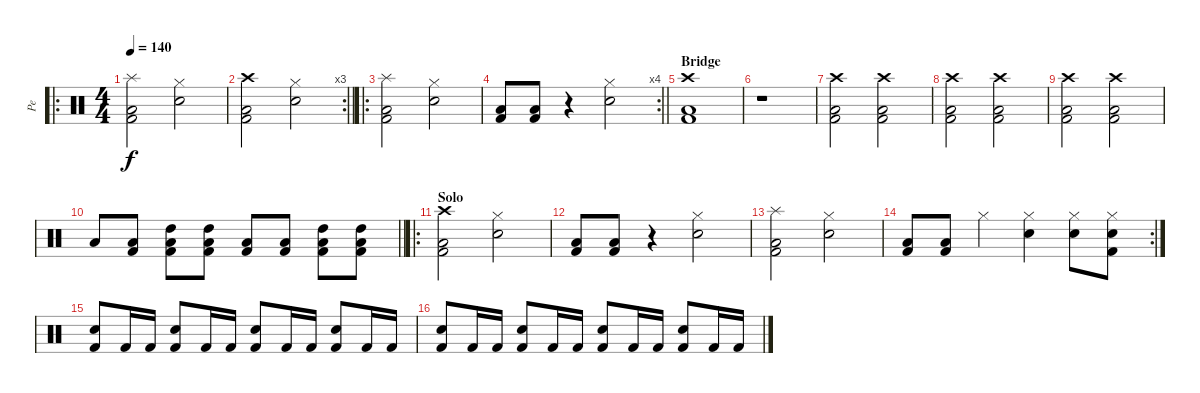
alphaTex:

\track ("Pe" "Pe") {instrument percussion}
\staff {score}
\articulation defaults
\ro
\ts (4 4)
\tempo 140
\clef neutral
\ks c
("Splash (hit)" "Low Floor Tom (hit)" "Kick (hit) 2").2{dy f} ("Snare (hit) 2" "Hi-Hat (closed)").2 |
\rc 3
\barLineRight lightlight
("Crash high (hit)" "Low Floor Tom (hit)" "Kick (hit) 2").2 ("Snare (hit) 2" "Hi-Hat (closed)").2 |
\ro
("Splash (hit)" "Low Floor Tom (hit)" "Kick (hit) 2").2 ("Snare (hit) 2" "Hi-Hat (closed)").2 |
\rc 4
\barLineRight lightlight
("Low Floor Tom (hit)" "Kick (hit) 2").8 ("Low Floor Tom (hit)" "Kick (hit) 2").8 r.4 ("Snare (hit) 2" "Hi-Hat (closed)").2 |
\section ("" "Bridge")
("Low Floor Tom (hit)" "Crash high (hit)" "Kick (hit) 2").1 |
r.1 |
("Low Floor Tom (hit)" "Crash high (hit)" "Kick (hit) 2").2 ("Low Floor Tom (hit)" "Crash high (hit)" "Kick (hit) 2").2 |
("Low Floor Tom (hit)" "Crash high (hit)" "Kick (hit) 2").2 ("Low Floor Tom (hit)" "Crash high (hit)" "Kick (hit) 2").2 |
("Low Floor Tom (hit)" "Crash high (hit)" "Kick (hit) 2").2 ("Low Floor Tom (hit)" "Crash high (hit)" "Kick (hit) 2").2 |
\barLineRight lightlight "Low Floor Tom (hit)".8
("Low Floor Tom (hit)" "Kick (hit) 2").8 ("High Tom (hit)" "Low Floor Tom (hit)" "Kick (hit) 2").8 ("High Tom (hit)" "Low Floor Tom (hit)" "Kick (hit) 2").8 ("Kick (hit) 2" "Low Floor Tom (hit)").8 ("Kick (hit) 2" "Low Floor Tom (hit)").8 ("High Tom (hit)" "Kick (hit) 2" "Low Floor Tom (hit)").8 ("High Tom (hit)" "Kick (hit) 2" "Low Floor Tom (hit)").8 |
\ro
\section ("" "Solo")
("Crash high (hit)" "Low Floor Tom (hit)" "Kick (hit) 2").2 ("Snare (hit) 2" "Hi-Hat (closed)").2 |
("Low Floor Tom (hit)" "Kick (hit) 2").8 ("Low Floor Tom (hit)" "Kick (hit) 2").8 r.4 ("Snare (hit) 2" "Hi-Hat (closed)").2 |
("Splash (hit)" "Low Floor Tom (hit)" "Kick (hit) 2").2 ("Snare (hit) 2" "Hi-Hat (closed)").2 |
\rc 2
("Low Floor Tom (hit)" "Kick (hit) 2").8 ("Low Floor Tom (hit)" "Kick (hit) 2").8 "Hi-Hat (closed)".4 ("Snare (hit) 2" "Hi-Hat (closed)").4 ("Snare (hit) 2" "Hi-Hat (closed)").8 ("Kick (hit) 2" "Snare (hit) 2" "Hi-Hat (closed)").8 |
("Snare (hit) 2" "Kick (hit) 2").8 "Kick (hit) 2".16 "Kick (hit) 2".16 ("Snare (hit) 2" "Kick (hit) 2").8 "Kick (hit) 2".16 "Kick (hit) 2".16 ("Snare (hit) 2" "Kick (hit) 2").8 "Kick (hit) 2".16 "Kick (hit) 2".16 ("Snare (hit) 2" "Kick (hit) 2").8 "Kick (hit) 2".16 "Kick (hit) 2".16 |
("Snare (hit) 2" "Kick (hit) 2").8 "Kick (hit) 2".16 "Kick (hit) 2".16 ("Snare (hit) 2" "Kick (hit) 2").8 "Kick (hit) 2".16 "Kick (hit) 2".16 ("Snare (hit) 2" "Kick (hit) 2").8 "Kick (hit) 2".16 "Kick (hit) 2".16 ("Snare (hit) 2" "Kick (hit) 2").8 "Kick (hit) 2".16 "Kick (hit) 2".16
